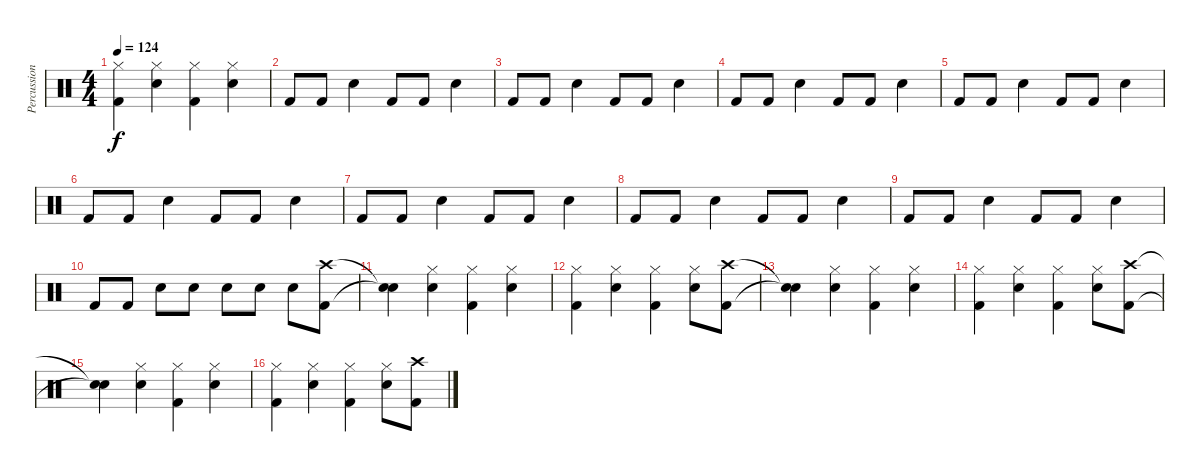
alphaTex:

\track ("Percussion" "Percussion") {instrument percussion}
\staff {score}
\articulation defaults
\ts (4 4)
\tempo 124
\clef neutral
\ks c
("Hi-Hat (closed)" "Kick (hit) 2").4{dy f} ("Hi-Hat (closed)" "Snare (hit) 2").4 ("Hi-Hat (closed)" "Kick (hit) 2").4 ("Hi-Hat (closed)" "Snare (hit) 2").4 |
"Kick (hit) 2".8 "Kick (hit) 2".8 "Snare (hit) 2".4 "Kick (hit) 2".8 "Kick (hit) 2".8 "Snare (hit) 2".4 |
"Kick (hit) 2".8 "Kick (hit) 2".8 "Snare (hit) 2".4 "Kick (hit) 2".8 "Kick (hit) 2".8 "Snare (hit) 2".4 |
"Kick (hit) 2".8 "Kick (hit) 2".8 "Snare (hit) 2".4 "Kick (hit) 2".8 "Kick (hit) 2".8 "Snare (hit) 2".4 |
"Kick (hit) 2".8 "Kick (hit) 2".8 "Snare (hit) 2".4 "Kick (hit) 2".8 "Kick (hit) 2".8 "Snare (hit) 2".4 |
"Kick (hit) 2".8 "Kick (hit) 2".8 "Snare (hit) 2".4 "Kick (hit) 2".8 "Kick (hit) 2".8 "Snare (hit) 2".4 |
"Kick (hit) 2".8 "Kick (hit) 2".8 "Snare (hit) 2".4 "Kick (hit) 2".8 "Kick (hit) 2".8 "Snare (hit) 2".4 |
"Kick (hit) 2".8 "Kick (hit) 2".8 "Snare (hit) 2".4 "Kick (hit) 2".8 "Kick (hit) 2".8 "Snare (hit) 2".4 |
"Kick (hit) 2".8 "Kick (hit) 2".8 "Snare (hit) 2".4 "Kick (hit) 2".8 "Kick (hit) 2".8 "Snare (hit) 2".4 |
"Kick (hit) 2".8 "Kick (hit) 2".8 "Snare (hit) 2".8 "Snare (hit) 2".8 "Snare (hit) 2".8 "Snare (hit) 2".8 "Snare (hit) 2".8 ("Crash high (hit)" "Kick (hit) 2").8 |
("Snare (hit)"{t} "Snare (hit)"{t}).4 ("Hi-Hat (closed)" "Snare (hit) 2").4 ("Hi-Hat (closed)" "Kick (hit) 2").4 ("Hi-Hat (closed)" "Snare (hit) 2").4 |
("Hi-Hat (closed)" "Kick (hit) 2").4 ("Hi-Hat (closed)" "Snare (hit) 2").4 ("Hi-Hat (closed)" "Kick (hit) 2").4 ("Hi-Hat (closed)" "Snare (hit) 2").8 ("Crash high (hit)" "Kick (hit) 2").8 |
("Snare (hit)"{t} "Snare (hit)"{t}).4 ("Hi-Hat (closed)" "Snare (hit) 2").4 ("Hi-Hat (closed)" "Kick (hit) 2").4 ("Hi-Hat (closed)" "Snare (hit) 2").4 |
("Hi-Hat (closed)" "Kick (hit) 2").4 ("Hi-Hat (closed)" "Snare (hit) 2").4 ("Hi-Hat (closed)" "Kick (hit) 2").4 ("Hi-Hat (closed)" "Snare (hit) 2").8 ("Crash high (hit)" "Kick (hit) 2").8 |
("Snare (hit)"{t} "Snare (hit)"{t}).4 ("Hi-Hat (closed)" "Snare (hit) 2").4 ("Hi-Hat (closed)" "Kick (hit) 2").4 ("Hi-Hat (closed)" "Snare (hit) 2").4 |
("Hi-Hat (closed)" "Kick (hit) 2").4 ("Hi-Hat (closed)" "Snare (hit) 2").4 ("Hi-Hat (closed)" "Kick (hit) 2").4 ("Hi-Hat (closed)" "Snare (hit) 2").8 ("Crash high (hit)" "Kick (hit) 2").8
